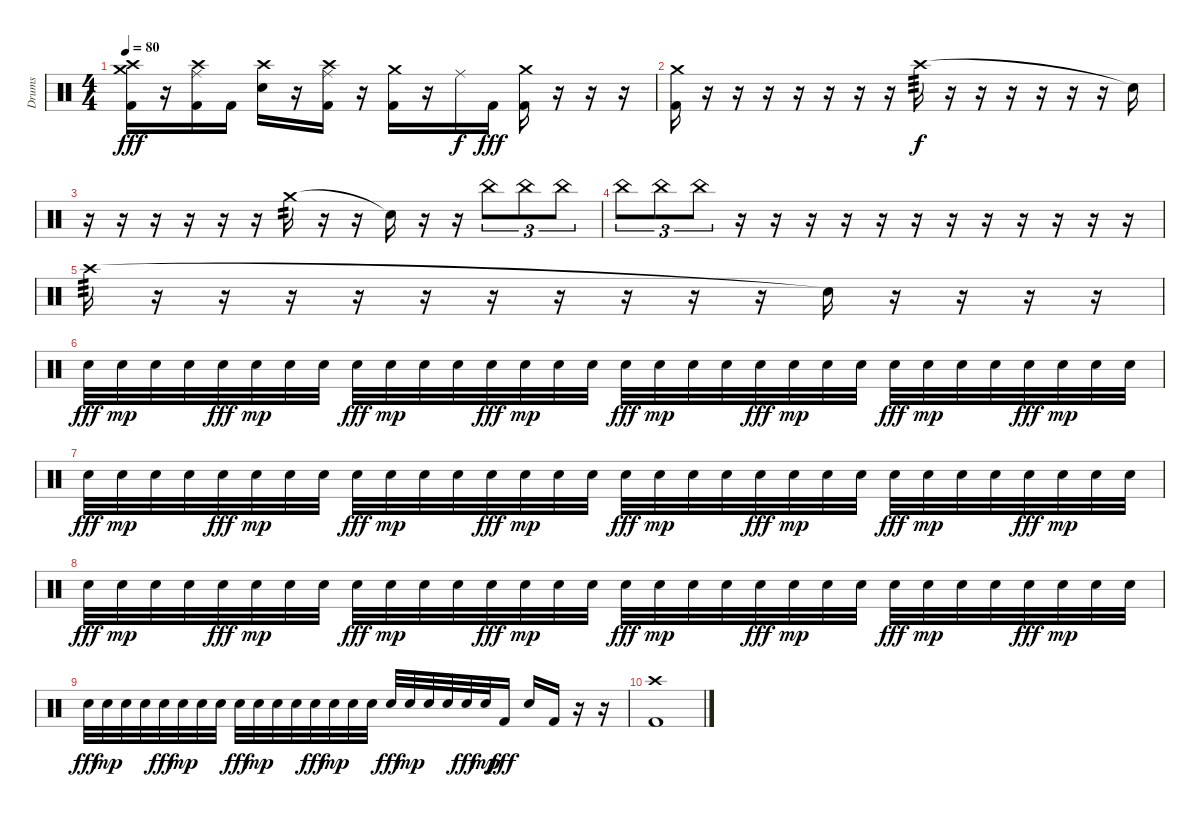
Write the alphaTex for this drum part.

\track ("Drums" "Drums") {instrument percussion}
\staff {score}
\articulation defaults
\ts (4 4)
\tempo 80
\clef neutral
\ks c
("Crash medium (hit)" "Crash high (hit)" "Kick (hit) 2").16{dy fff} r.16 ("Crash high (hit)" "Ride (middle)" "Kick (hit) 2").16 "Kick (hit) 2".16 ("Crash high (hit)" "Electric Snare (hit)").16 r.16 ("Crash high (hit)" "Ride (middle)" "Kick (hit) 2").16 r.16 ("Crash medium (hit)" "Kick (hit) 2").16 r.16 "Ride (middle)".16{dy f} "Kick (hit) 2".16{dy fff} ("Crash medium (hit)" "Kick (hit) 2").16 r.16 r.16 r.16 |
("Crash medium (hit)" "Kick (hit) 2").16 r.16 r.16 r.16 r.16 r.16 r.16 r.16{volume 0} "Crash high (hit)".16{tp 3 dy f volume 12} r.16 r.16 r.16 r.16 r.16 r.16 "Snare (hit)"{t}.16 |
r.16 r.16 r.16 r.16 r.16 r.16{volume 0} "Crash medium (hit)".16{tp 2 volume 12} r.16 r.16 "Snare (hit)"{t}.16 r.16 r.16 "China (hit)".8{tu (3 2)} "China (hit)".8{tu (3 2)} "China (hit)".8{tu (3 2)} |
"China (hit)".8{tu (3 2)} "China (hit)".8{tu (3 2)} "China (hit)".8{tu (3 2)} r.16 r.16 r.16 r.16 r.16 r.16 r.16 r.16 r.16 r.16 r.16 r.16{volume 0} |
"Crash high (hit)".16{tp 3 volume 12} r.16 r.16 r.16 r.16 r.16 r.16 r.16 r.16 r.16 r.16 "Snare (hit)"{t}.16 r.16 r.16 r.16 r.16 |
"Electric Snare (hit)".32{dy fff volume 7} "Electric Snare (hit)".32{dy mp} "Electric Snare (hit)".32 "Electric Snare (hit)".32 "Electric Snare (hit)".32{dy fff} "Electric Snare (hit)".32{dy mp} "Electric Snare (hit)".32 "Electric Snare (hit)".32 "Electric Snare (hit)".32{dy fff} "Electric Snare (hit)".32{dy mp} "Electric Snare (hit)".32 "Electric Snare (hit)".32 "Electric Snare (hit)".32{dy fff} "Electric Snare (hit)".32{dy mp} "Electric Snare (hit)".32 "Electric Snare (hit)".32 "Electric Snare (hit)".32{dy fff} "Electric Snare (hit)".32{dy mp} "Electric Snare (hit)".32 "Electric Snare (hit)".32 "Electric Snare (hit)".32{dy fff} "Electric Snare (hit)".32{dy mp} "Electric Snare (hit)".32 "Electric Snare (hit)".32 "Electric Snare (hit)".32{dy fff} "Electric Snare (hit)".32{dy mp} "Electric Snare (hit)".32 "Electric Snare (hit)".32 "Electric Snare (hit)".32{dy fff} "Electric Snare (hit)".32{dy mp} "Electric Snare (hit)".32 "Electric Snare (hit)".32 |
"Electric Snare (hit)".32{dy fff} "Electric Snare (hit)".32{dy mp} "Electric Snare (hit)".32 "Electric Snare (hit)".32 "Electric Snare (hit)".32{dy fff} "Electric Snare (hit)".32{dy mp} "Electric Snare (hit)".32 "Electric Snare (hit)".32 "Electric Snare (hit)".32{dy fff} "Electric Snare (hit)".32{dy mp} "Electric Snare (hit)".32 "Electric Snare (hit)".32 "Electric Snare (hit)".32{dy fff} "Electric Snare (hit)".32{dy mp} "Electric Snare (hit)".32 "Electric Snare (hit)".32 "Electric Snare (hit)".32{dy fff} "Electric Snare (hit)".32{dy mp} "Electric Snare (hit)".32 "Electric Snare (hit)".32 "Electric Snare (hit)".32{dy fff} "Electric Snare (hit)".32{dy mp} "Electric Snare (hit)".32 "Electric Snare (hit)".32 "Electric Snare (hit)".32{dy fff} "Electric Snare (hit)".32{dy mp} "Electric Snare (hit)".32 "Electric Snare (hit)".32 "Electric Snare (hit)".32{dy fff} "Electric Snare (hit)".32{dy mp} "Electric Snare (hit)".32 "Electric Snare (hit)".32 |
"Electric Snare (hit)".32{dy fff volume 16} "Electric Snare (hit)".32{dy mp} "Electric Snare (hit)".32 "Electric Snare (hit)".32 "Electric Snare (hit)".32{dy fff} "Electric Snare (hit)".32{dy mp} "Electric Snare (hit)".32 "Electric Snare (hit)".32 "Electric Snare (hit)".32{dy fff} "Electric Snare (hit)".32{dy mp} "Electric Snare (hit)".32 "Electric Snare (hit)".32 "Electric Snare (hit)".32{dy fff} "Electric Snare (hit)".32{dy mp} "Electric Snare (hit)".32 "Electric Snare (hit)".32 "Electric Snare (hit)".32{dy fff} "Electric Snare (hit)".32{dy mp} "Electric Snare (hit)".32 "Electric Snare (hit)".32 "Electric Snare (hit)".32{dy fff} "Electric Snare (hit)".32{dy mp} "Electric Snare (hit)".32 "Electric Snare (hit)".32 "Electric Snare (hit)".32{dy fff} "Electric Snare (hit)".32{dy mp} "Electric Snare (hit)".32 "Electric Snare (hit)".32 "Electric Snare (hit)".32{dy fff} "Electric Snare (hit)".32{dy mp} "Electric Snare (hit)".32 "Electric Snare (hit)".32 |
"Electric Snare (hit)".32{dy fff} "Electric Snare (hit)".32{dy mp} "Electric Snare (hit)".32 "Electric Snare (hit)".32 "Electric Snare (hit)".32{dy fff} "Electric Snare (hit)".32{dy mp} "Electric Snare (hit)".32 "Electric Snare (hit)".32 "Electric Snare (hit)".32{dy fff} "Electric Snare (hit)".32{dy mp} "Electric Snare (hit)".32 "Electric Snare (hit)".32 "Electric Snare (hit)".32{dy fff} "Electric Snare (hit)".32{dy mp} "Electric Snare (hit)".32 "Electric Snare (hit)".32 "Electric Snare (hit)".32{dy fff} "Electric Snare (hit)".32{dy mp} "Electric Snare (hit)".32 "Electric Snare (hit)".32 "Electric Snare (hit)".32{dy fff} "Electric Snare (hit)".32{dy mp} "Kick (hit) 2".16{dy fff} "Electric Snare (hit)".16 "Kick (hit) 2".16 r.16 r.16 |
("Crash high (hit)" "Kick (hit) 2").1
